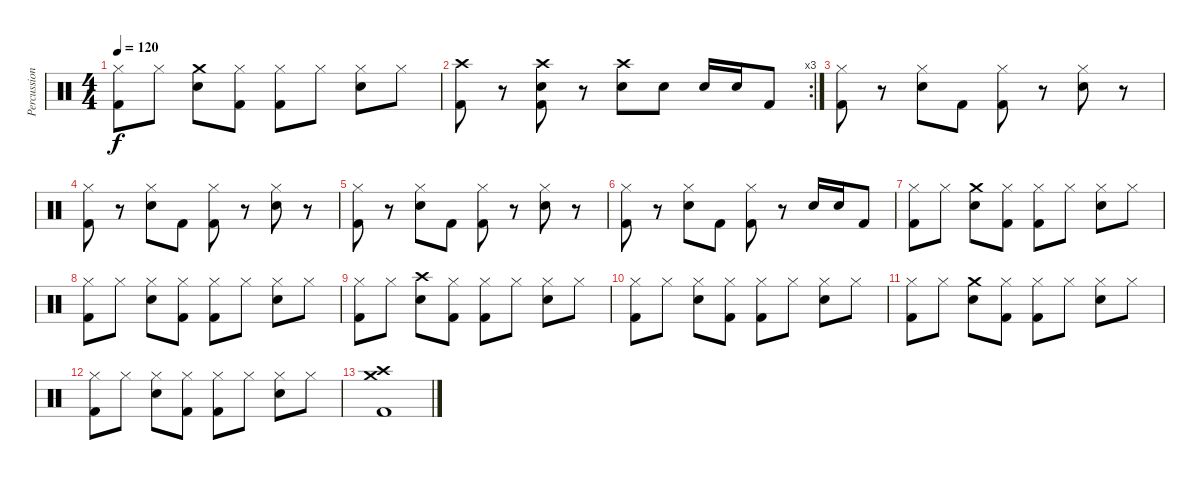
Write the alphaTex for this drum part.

\track ("Percussion" "Percussion") {instrument percussion}
\staff {score}
\articulation defaults
\ts (4 4)
\tempo 120
\clef neutral
\ks c
("Hi-Hat (closed)" "Kick (hit) 2").8{dy f} "Hi-Hat (closed)".8 ("Crash medium (hit)" "Snare (hit) 2").8 ("Hi-Hat (closed)" "Kick (hit) 2").8 ("Hi-Hat (closed)" "Kick (hit) 2").8 "Hi-Hat (closed)".8 ("Hi-Hat (closed)" "Snare (hit) 2").8 "Hi-Hat (closed)".8 |
\rc 3
("Crash high (hit)" "Kick (hit) 2").8 r.8 ("Crash high (hit)" "Snare (hit) 2" "Kick (hit) 2").8 r.8 ("Crash high (hit)" "Snare (hit) 2").8 "Snare (hit) 2".8 "Snare (hit) 2".16 "Snare (hit) 2".16 "Kick (hit) 2".8 |
("Hi-Hat (closed)" "Kick (hit) 2").8 r.8 ("Hi-Hat (closed)" "Snare (hit) 2").8 "Kick (hit) 2".8 ("Hi-Hat (closed)" "Kick (hit) 2").8 r.8 ("Hi-Hat (closed)" "Snare (hit) 2").8 r.8 |
("Hi-Hat (closed)" "Kick (hit) 2").8 r.8 ("Hi-Hat (closed)" "Snare (hit) 2").8 "Kick (hit) 2".8 ("Hi-Hat (closed)" "Kick (hit) 2").8 r.8 ("Hi-Hat (closed)" "Snare (hit) 2").8 r.8 |
("Hi-Hat (closed)" "Kick (hit) 2").8 r.8 ("Hi-Hat (closed)" "Snare (hit) 2").8 "Kick (hit) 2".8 ("Hi-Hat (closed)" "Kick (hit) 2").8 r.8 ("Hi-Hat (closed)" "Snare (hit) 2").8 r.8 |
("Hi-Hat (closed)" "Kick (hit) 2").8 r.8 ("Hi-Hat (closed)" "Snare (hit) 2").8 "Kick (hit) 2".8 ("Hi-Hat (closed)" "Kick (hit) 2").8 r.8 "Snare (hit) 2".16 "Snare (hit) 2".16 "Kick (hit) 2".8 |
("Hi-Hat (closed)" "Kick (hit) 2").8 "Hi-Hat (closed)".8 ("Crash medium (hit)" "Snare (hit) 2").8 ("Hi-Hat (closed)" "Kick (hit) 2").8 ("Hi-Hat (closed)" "Kick (hit) 2").8 "Hi-Hat (closed)".8 ("Hi-Hat (closed)" "Snare (hit) 2").8 "Hi-Hat (closed)".8 |
("Hi-Hat (closed)" "Kick (hit) 2").8 "Hi-Hat (closed)".8 ("Hi-Hat (closed)" "Snare (hit) 2").8 ("Hi-Hat (closed)" "Kick (hit) 2").8 ("Hi-Hat (closed)" "Kick (hit) 2").8 "Hi-Hat (closed)".8 ("Hi-Hat (closed)" "Snare (hit) 2").8 "Hi-Hat (closed)".8 |
("Hi-Hat (closed)" "Kick (hit) 2").8 "Hi-Hat (closed)".8 ("Crash high (hit)" "Snare (hit) 2").8 ("Hi-Hat (closed)" "Kick (hit) 2").8 ("Hi-Hat (closed)" "Kick (hit) 2").8 "Hi-Hat (closed)".8 ("Hi-Hat (closed)" "Snare (hit) 2").8 "Hi-Hat (closed)".8 |
("Hi-Hat (closed)" "Kick (hit) 2").8 "Hi-Hat (closed)".8 ("Hi-Hat (closed)" "Snare (hit) 2").8 ("Hi-Hat (closed)" "Kick (hit) 2").8 ("Hi-Hat (closed)" "Kick (hit) 2").8 "Hi-Hat (closed)".8 ("Hi-Hat (closed)" "Snare (hit) 2").8 "Hi-Hat (closed)".8 |
("Hi-Hat (closed)" "Kick (hit) 2").8 "Hi-Hat (closed)".8 ("Crash medium (hit)" "Snare (hit) 2").8 ("Hi-Hat (closed)" "Kick (hit) 2").8 ("Hi-Hat (closed)" "Kick (hit) 2").8 "Hi-Hat (closed)".8 ("Hi-Hat (closed)" "Snare (hit) 2").8 "Hi-Hat (closed)".8 |
("Hi-Hat (closed)" "Kick (hit) 2").8 "Hi-Hat (closed)".8 ("Hi-Hat (closed)" "Snare (hit) 2").8 ("Hi-Hat (closed)" "Kick (hit) 2").8 ("Hi-Hat (closed)" "Kick (hit) 2").8 "Hi-Hat (closed)".8 ("Hi-Hat (closed)" "Snare (hit) 2").8 "Hi-Hat (closed)".8 |
("Crash medium (hit)" "Crash high (hit)" "Kick (hit) 2").1
